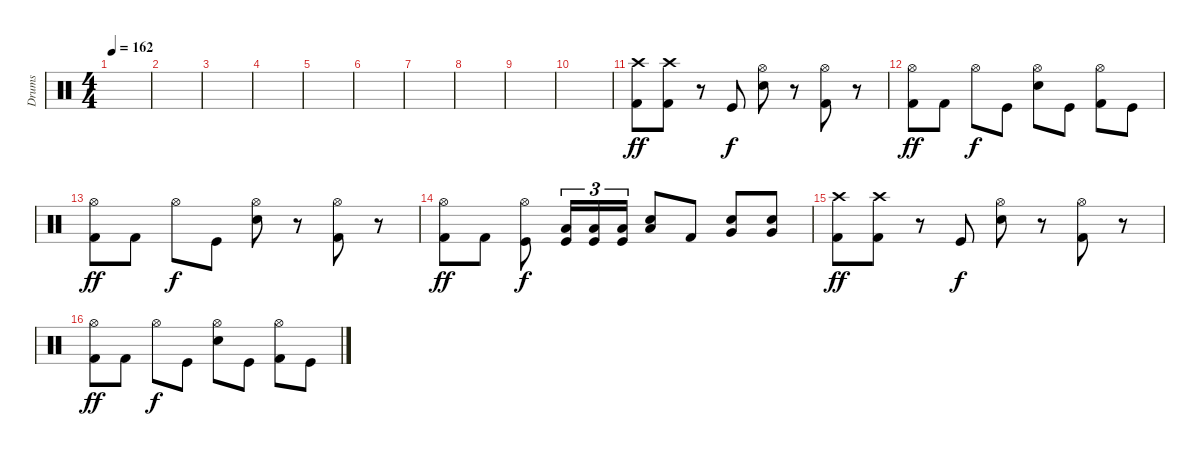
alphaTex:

\track ("Drums" "Drums") {instrument percussion}
\staff {score}
\articulation defaults
\ts (4 4)
\tempo 162
\clef neutral
\ks c
|
|
|
|
|
|
|
|
|
|
("Crash high (hit)" "Kick (hit) 2").8{dy ff} ("Crash high (hit)" "Kick (hit) 2").8 r.8 "Kick (hit)".8{dy f} ("Hi-Hat (open)" "Electric Snare (hit)").8 r.8 ("Hi-Hat (open)" "Kick (hit) 2").8 r.8 |
("Hi-Hat (open)" "Kick (hit) 2").8{dy ff} "Kick (hit) 2".8 "Hi-Hat (open)".8{dy f} "Kick (hit)".8 ("Hi-Hat (open)" "Electric Snare (hit)").8 "Kick (hit)".8 ("Hi-Hat (open)" "Kick (hit) 2").8 "Kick (hit)".8 |
("Hi-Hat (open)" "Kick (hit) 2").8{dy ff} "Kick (hit) 2".8 "Hi-Hat (open)".8{dy f} "Kick (hit)".8 ("Hi-Hat (open)" "Electric Snare (hit)").8 r.8 ("Hi-Hat (open)" "Kick (hit) 2").8 r.8 |
("Hi-Hat (open)" "Kick (hit) 2").8{dy ff} "Kick (hit) 2".8 ("Hi-Hat (open)" "Kick (hit)").8{dy f} ("Low Tom (hit)" "Kick (hit)").16{tu (3 2)} ("Low Tom (hit)" "Kick (hit)").16{tu (3 2)} ("Low Tom (hit)" "Kick (hit)").16{tu (3 2)} ("Low Tom (hit)" "Snare (hit) 2").8 "Kick (hit) 2".8 ("Very Low Tom (hit)" "Snare (hit) 2").8 ("Very Low Tom (hit)" "Snare (hit) 2").8 |
("Crash high (hit)" "Kick (hit) 2").8{dy ff} ("Crash high (hit)" "Kick (hit) 2").8 r.8 "Kick (hit)".8{dy f} ("Hi-Hat (open)" "Electric Snare (hit)").8 r.8 ("Hi-Hat (open)" "Kick (hit) 2").8 r.8 |
("Hi-Hat (open)" "Kick (hit) 2").8{dy ff} "Kick (hit) 2".8 "Hi-Hat (open)".8{dy f} "Kick (hit)".8 ("Hi-Hat (open)" "Electric Snare (hit)").8 "Kick (hit)".8 ("Hi-Hat (open)" "Kick (hit) 2").8 "Kick (hit)".8
